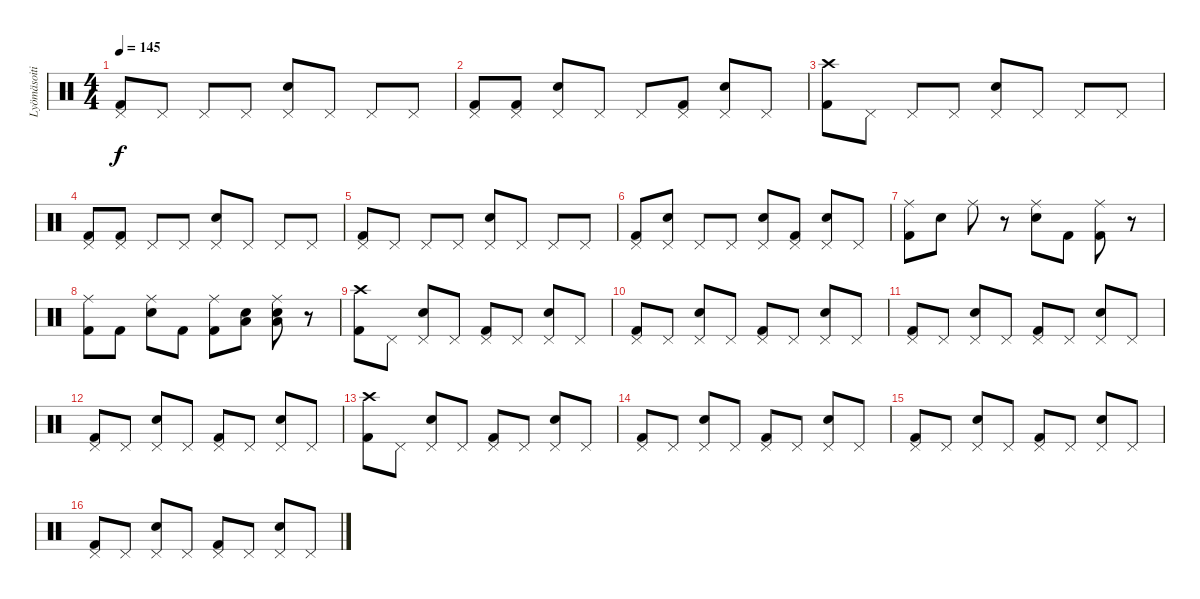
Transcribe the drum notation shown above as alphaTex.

\track ("Lyömäsoitin" "Lyömäsoiti") {instrument percussion}
\staff {score}
\articulation defaults
\ts (4 4)
\tempo 145
\clef neutral
\ks c
("Pedal Hi-Hat (hit)" "Kick (hit) 2").8{dy f} "Pedal Hi-Hat (hit)".8 "Pedal Hi-Hat (hit)".8 "Pedal Hi-Hat (hit)".8 ("Pedal Hi-Hat (hit)" "Electric Snare (hit)").8 "Pedal Hi-Hat (hit)".8 "Pedal Hi-Hat (hit)".8 "Pedal Hi-Hat (hit)".8 |
("Pedal Hi-Hat (hit)" "Kick (hit) 2").8 ("Pedal Hi-Hat (hit)" "Kick (hit) 2").8 ("Pedal Hi-Hat (hit)" "Electric Snare (hit)").8 "Pedal Hi-Hat (hit)".8 "Pedal Hi-Hat (hit)".8 ("Pedal Hi-Hat (hit)" "Kick (hit) 2").8 ("Pedal Hi-Hat (hit)" "Electric Snare (hit)").8 "Pedal Hi-Hat (hit)".8 |
("Crash high (hit)" "Kick (hit) 2").8 "Pedal Hi-Hat (hit)".8 "Pedal Hi-Hat (hit)".8 "Pedal Hi-Hat (hit)".8 ("Pedal Hi-Hat (hit)" "Electric Snare (hit)").8 "Pedal Hi-Hat (hit)".8 "Pedal Hi-Hat (hit)".8 "Pedal Hi-Hat (hit)".8 |
("Pedal Hi-Hat (hit)" "Kick (hit) 2").8 ("Pedal Hi-Hat (hit)" "Kick (hit) 2").8 "Pedal Hi-Hat (hit)".8 "Pedal Hi-Hat (hit)".8 ("Pedal Hi-Hat (hit)" "Electric Snare (hit)").8 "Pedal Hi-Hat (hit)".8 "Pedal Hi-Hat (hit)".8 "Pedal Hi-Hat (hit)".8 |
("Pedal Hi-Hat (hit)" "Kick (hit) 2").8 "Pedal Hi-Hat (hit)".8 "Pedal Hi-Hat (hit)".8 "Pedal Hi-Hat (hit)".8 ("Pedal Hi-Hat (hit)" "Electric Snare (hit)").8 "Pedal Hi-Hat (hit)".8 "Pedal Hi-Hat (hit)".8 "Pedal Hi-Hat (hit)".8 |
("Pedal Hi-Hat (hit)" "Kick (hit) 2").8 ("Pedal Hi-Hat (hit)" "Electric Snare (hit)").8 "Pedal Hi-Hat (hit)".8 "Pedal Hi-Hat (hit)".8 ("Pedal Hi-Hat (hit)" "Electric Snare (hit)").8 ("Pedal Hi-Hat (hit)" "Kick (hit) 2").8 ("Pedal Hi-Hat (hit)" "Electric Snare (hit)").8 "Pedal Hi-Hat (hit)".8 |
("Ride (middle)" "Kick (hit) 2").8 "Electric Snare (hit)".8 "Ride (middle)".8 r.8 ("Ride (middle)" "Electric Snare (hit)").8 "Kick (hit) 2".8 ("Ride (middle)" "Kick (hit) 2").8 r.8 |
("Ride (middle)" "Kick (hit) 2").8 "Kick (hit) 2".8 ("Ride (middle)" "Electric Snare (hit)").8 "Kick (hit) 2".8 ("Ride (middle)" "Kick (hit) 2").8 ("Low Floor Tom (hit)" "Electric Snare (hit)").8 ("Ride (middle)" "Low Floor Tom (hit)" "Electric Snare (hit)").8 r.8 |
("Crash high (hit)" "Kick (hit) 2").8 "Pedal Hi-Hat (hit)".8 ("Pedal Hi-Hat (hit)" "Electric Snare (hit)").8 "Pedal Hi-Hat (hit)".8 ("Pedal Hi-Hat (hit)" "Kick (hit) 2").8 "Pedal Hi-Hat (hit)".8 ("Pedal Hi-Hat (hit)" "Electric Snare (hit)").8 "Pedal Hi-Hat (hit)".8 |
("Pedal Hi-Hat (hit)" "Kick (hit) 2").8 "Pedal Hi-Hat (hit)".8 ("Pedal Hi-Hat (hit)" "Electric Snare (hit)").8 "Pedal Hi-Hat (hit)".8 ("Pedal Hi-Hat (hit)" "Kick (hit) 2").8 "Pedal Hi-Hat (hit)".8 ("Pedal Hi-Hat (hit)" "Electric Snare (hit)").8 "Pedal Hi-Hat (hit)".8 |
("Pedal Hi-Hat (hit)" "Kick (hit) 2").8 "Pedal Hi-Hat (hit)".8 ("Pedal Hi-Hat (hit)" "Electric Snare (hit)").8 "Pedal Hi-Hat (hit)".8 ("Pedal Hi-Hat (hit)" "Kick (hit) 2").8 "Pedal Hi-Hat (hit)".8 ("Pedal Hi-Hat (hit)" "Electric Snare (hit)").8 "Pedal Hi-Hat (hit)".8 |
("Pedal Hi-Hat (hit)" "Kick (hit) 2").8 "Pedal Hi-Hat (hit)".8 ("Pedal Hi-Hat (hit)" "Electric Snare (hit)").8 "Pedal Hi-Hat (hit)".8 ("Pedal Hi-Hat (hit)" "Kick (hit) 2").8 "Pedal Hi-Hat (hit)".8 ("Pedal Hi-Hat (hit)" "Electric Snare (hit)").8 "Pedal Hi-Hat (hit)".8 |
("Crash high (hit)" "Kick (hit) 2").8 "Pedal Hi-Hat (hit)".8 ("Pedal Hi-Hat (hit)" "Electric Snare (hit)").8 "Pedal Hi-Hat (hit)".8 ("Pedal Hi-Hat (hit)" "Kick (hit) 2").8 "Pedal Hi-Hat (hit)".8 ("Pedal Hi-Hat (hit)" "Electric Snare (hit)").8 "Pedal Hi-Hat (hit)".8 |
("Pedal Hi-Hat (hit)" "Kick (hit) 2").8 "Pedal Hi-Hat (hit)".8 ("Pedal Hi-Hat (hit)" "Electric Snare (hit)").8 "Pedal Hi-Hat (hit)".8 ("Pedal Hi-Hat (hit)" "Kick (hit) 2").8 "Pedal Hi-Hat (hit)".8 ("Pedal Hi-Hat (hit)" "Electric Snare (hit)").8 "Pedal Hi-Hat (hit)".8 |
("Pedal Hi-Hat (hit)" "Kick (hit) 2").8 "Pedal Hi-Hat (hit)".8 ("Pedal Hi-Hat (hit)" "Electric Snare (hit)").8 "Pedal Hi-Hat (hit)".8 ("Pedal Hi-Hat (hit)" "Kick (hit) 2").8 "Pedal Hi-Hat (hit)".8 ("Pedal Hi-Hat (hit)" "Electric Snare (hit)").8 "Pedal Hi-Hat (hit)".8 |
("Pedal Hi-Hat (hit)" "Kick (hit) 2").8 "Pedal Hi-Hat (hit)".8 ("Pedal Hi-Hat (hit)" "Electric Snare (hit)").8 "Pedal Hi-Hat (hit)".8 ("Pedal Hi-Hat (hit)" "Kick (hit) 2").8 "Pedal Hi-Hat (hit)".8 ("Pedal Hi-Hat (hit)" "Electric Snare (hit)").8 "Pedal Hi-Hat (hit)".8
